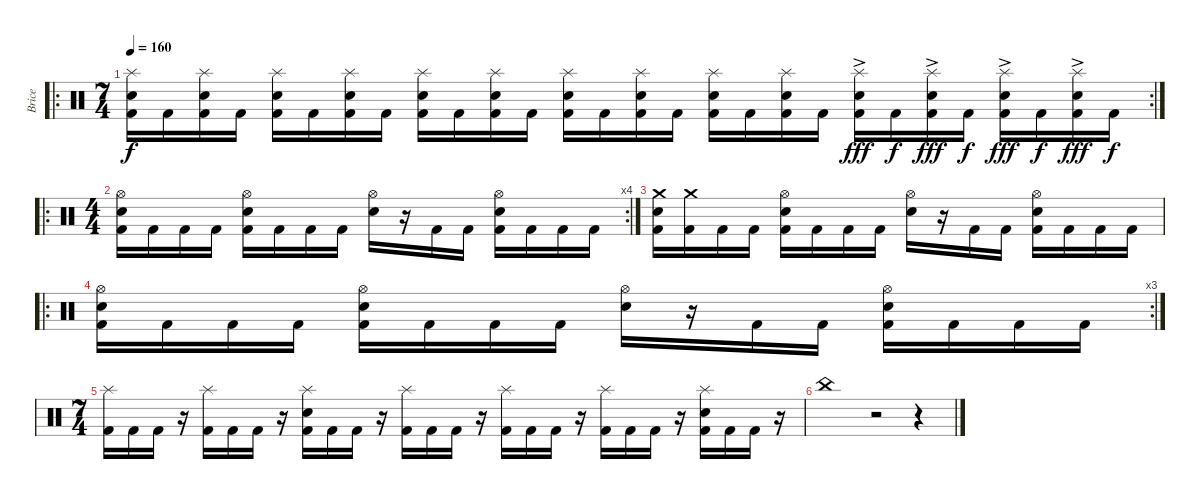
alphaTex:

\track ("Brice" "Brice") {instrument percussion}
\staff {score}
\articulation defaults
\ro
\rc 2
\ts (7 4)
\tempo 160
\clef neutral
\ks c
("Splash (hit)" "Electric Snare (hit)" "Kick (hit) 2").16{dy f} "Kick (hit) 2".16 ("Splash (hit)" "Electric Snare (hit)" "Kick (hit) 2").16 "Kick (hit) 2".16 ("Splash (hit)" "Electric Snare (hit)" "Kick (hit) 2").16 "Kick (hit) 2".16 ("Splash (hit)" "Electric Snare (hit)" "Kick (hit) 2").16 "Kick (hit) 2".16 ("Splash (hit)" "Electric Snare (hit)" "Kick (hit) 2").16 "Kick (hit) 2".16 ("Splash (hit)" "Electric Snare (hit)" "Kick (hit) 2").16 "Kick (hit) 2".16 ("Splash (hit)" "Electric Snare (hit)" "Kick (hit) 2").16 "Kick (hit) 2".16 ("Splash (hit)" "Electric Snare (hit)" "Kick (hit) 2").16 "Kick (hit) 2".16 ("Splash (hit)" "Electric Snare (hit)" "Kick (hit) 2").16 "Kick (hit) 2".16 ("Splash (hit)" "Electric Snare (hit)" "Kick (hit) 2").16 "Kick (hit) 2".16 ("Splash (hit)" "Electric Snare (hit)"{ac} "Kick (hit) 2").16{dy fff} "Kick (hit) 2".16{dy f} ("Splash (hit)" "Electric Snare (hit)"{ac} "Kick (hit) 2").16{dy fff} "Kick (hit) 2".16{dy f} ("Splash (hit)" "Electric Snare (hit)"{ac} "Kick (hit) 2").16{dy fff} "Kick (hit) 2".16{dy f} ("Splash (hit)" "Electric Snare (hit)"{ac} "Kick (hit) 2").16{dy fff} "Kick (hit) 2".16{dy f} |
\ro
\rc 4
\ts (4 4)
("Hi-Hat (open)" "Electric Snare (hit)" "Kick (hit) 2").16 "Kick (hit) 2".16 "Kick (hit) 2".16 "Kick (hit) 2".16 ("Hi-Hat (open)" "Electric Snare (hit)" "Kick (hit) 2").16 "Kick (hit) 2".16 "Kick (hit) 2".16 "Kick (hit) 2".16 ("Hi-Hat (open)" "Electric Snare (hit)").16 r.16 "Kick (hit) 2".16 "Kick (hit) 2".16 ("Hi-Hat (open)" "Electric Snare (hit)" "Kick (hit) 2").16 "Kick (hit) 2".16 "Kick (hit) 2".16 "Kick (hit) 2".16 |
("Crash medium (hit)" "Electric Snare (hit)" "Kick (hit) 2").16 ("Crash medium (hit)" "Kick (hit) 2").16 "Kick (hit) 2".16 "Kick (hit) 2".16 ("Hi-Hat (open)" "Electric Snare (hit)" "Kick (hit) 2").16 "Kick (hit) 2".16 "Kick (hit) 2".16 "Kick (hit) 2".16 ("Hi-Hat (open)" "Electric Snare (hit)").16 r.16 "Kick (hit) 2".16 "Kick (hit) 2".16 ("Hi-Hat (open)" "Electric Snare (hit)" "Kick (hit) 2").16 "Kick (hit) 2".16 "Kick (hit) 2".16 "Kick (hit) 2".16 |
\ro
\rc 3
("Hi-Hat (open)" "Electric Snare (hit)" "Kick (hit) 2").16 "Kick (hit) 2".16 "Kick (hit) 2".16 "Kick (hit) 2".16 ("Hi-Hat (open)" "Electric Snare (hit)" "Kick (hit) 2").16 "Kick (hit) 2".16 "Kick (hit) 2".16 "Kick (hit) 2".16 ("Hi-Hat (open)" "Electric Snare (hit)").16 r.16 "Kick (hit) 2".16 "Kick (hit) 2".16 ("Hi-Hat (open)" "Electric Snare (hit)" "Kick (hit) 2").16 "Kick (hit) 2".16 "Kick (hit) 2".16 "Kick (hit) 2".16 |
\ts (7 4)
("Splash (hit)" "Kick (hit) 2").16 "Kick (hit) 2".16 "Kick (hit) 2".16 r.16 ("Splash (hit)" "Kick (hit) 2").16 "Kick (hit) 2".16 "Kick (hit) 2".16 r.16 ("Splash (hit)" "Electric Snare (hit)" "Kick (hit) 2").16 "Kick (hit) 2".16 "Kick (hit) 2".16 r.16 ("Splash (hit)" "Kick (hit) 2").16 "Kick (hit) 2".16 "Kick (hit) 2".16 r.16 ("Splash (hit)" "Kick (hit) 2").16 "Kick (hit) 2".16 "Kick (hit) 2".16 r.16 ("Splash (hit)" "Kick (hit) 2").16 "Kick (hit) 2".16 "Kick (hit) 2".16 r.16 ("Splash (hit)" "Electric Snare (hit)" "Kick (hit) 2").16 "Kick (hit) 2".16 "Kick (hit) 2".16 r.16 |
"China (hit)".1 r.2 r.4
